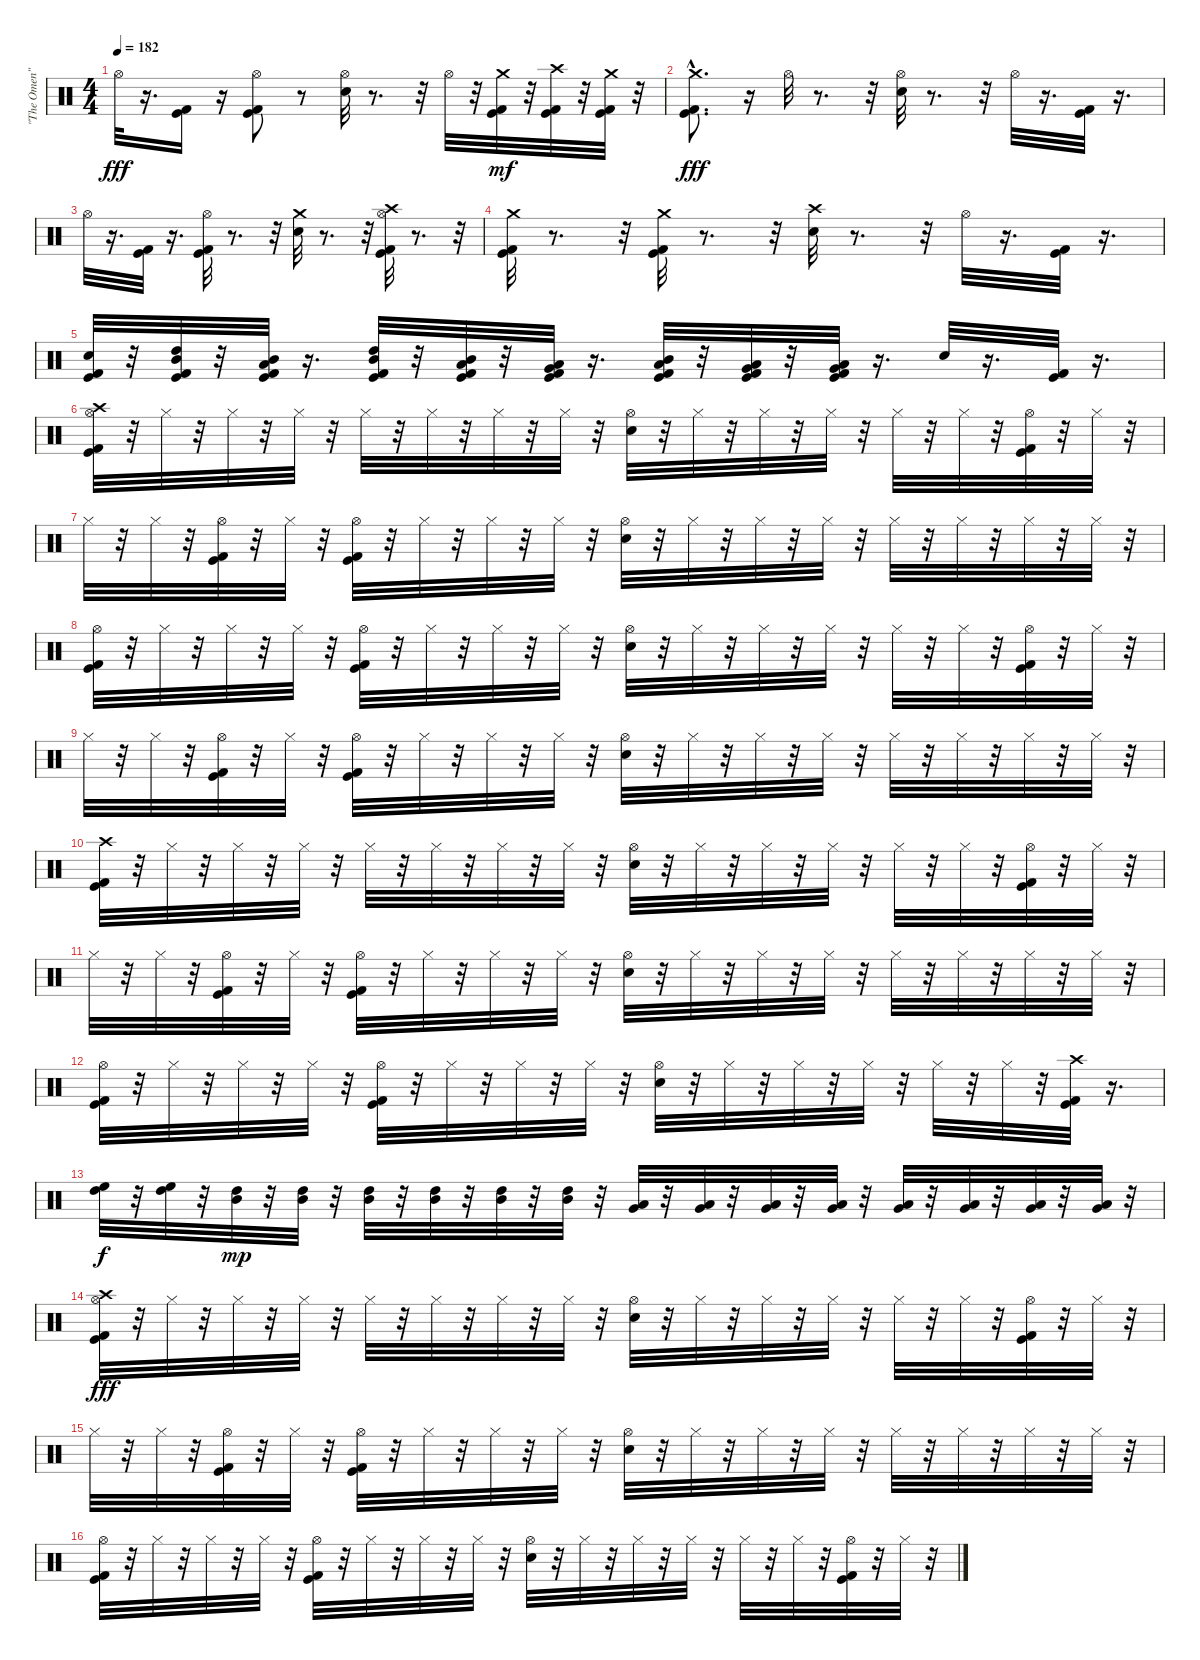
\track ("\"The Omen\"" "\"The Omen\"") {instrument percussion}
\staff {score}
\articulation defaults
\ts (4 4)
\tempo 182
\clef neutral
\ks c "Hi-Hat (open)".32{dy fff}
r.16{d} ("Kick (hit)" "Kick (hit) 2").16 r.16 ("Kick (hit)" "Kick (hit) 2" "Hi-Hat (open)").8 r.8 ("Snare (hit) 2" "Hi-Hat (open)").32 r.8{d} r.32 "Hi-Hat (open)".32 r.32 ("Kick (hit)" "Kick (hit) 2" "Crash medium (hit)").32{dy mf} r.32 ("Kick (hit)" "Kick (hit) 2" "Crash high (hit)").32 r.32 ("Kick (hit)" "Kick (hit) 2" "Crash medium (hit)").32 r.32 |
("Kick (hit)" "Kick (hit) 2"{hac} "Crash medium (hit)").8{d dy fff} r.16 "Hi-Hat (open)".32 r.8{d} r.32 ("Snare (hit) 2" "Hi-Hat (open)").32 r.8{d} r.32 "Hi-Hat (open)".32 r.16{d} ("Kick (hit)" "Kick (hit) 2").32 r.16{d} |
"Hi-Hat (open)".32 r.16{d} ("Kick (hit)" "Kick (hit) 2").32 r.16{d} ("Kick (hit)" "Kick (hit) 2" "Hi-Hat (open)").32 r.8{d} r.32 ("Snare (hit) 2" "Crash medium (hit)").32 r.8{d} r.32 ("Kick (hit)" "Kick (hit) 2" "Hi-Hat (open)" "Crash high (hit)").32 r.8{d} r.32 |
("Kick (hit)" "Kick (hit) 2" "Crash medium (hit)").32 r.8{d} r.32 ("Kick (hit)" "Kick (hit) 2" "Crash medium (hit)").32 r.8{d} r.32 ("Snare (hit) 2" "Crash high (hit)").32 r.8{d} r.32 "Hi-Hat (open)".32 r.16{d} ("Kick (hit)" "Kick (hit) 2").32 r.16{d} |
("Kick (hit)" "Kick (hit) 2" "Snare (hit) 2").32 r.32 ("Kick (hit)" "Kick (hit) 2" "Mid Tom (hit)" "High Tom (hit)").32 r.32 ("Kick (hit)" "Kick (hit) 2" "Low Tom (hit)" "Mid Tom (hit)").32 r.16{d} ("Kick (hit)" "Kick (hit) 2" "Mid Tom (hit)" "High Tom (hit)").32 r.32 ("Kick (hit)" "Kick (hit) 2" "Low Tom (hit)" "Mid Tom (hit)").32 r.32 ("Kick (hit)" "Kick (hit) 2" "Very Low Tom (hit)" "Low Tom (hit)").32 r.16{d} ("Kick (hit)" "Kick (hit) 2" "Low Tom (hit)" "Mid Tom (hit)").32 r.32 ("Kick (hit)" "Kick (hit) 2" "Very Low Tom (hit)" "Low Tom (hit)").32 r.32 ("Kick (hit)" "Kick (hit) 2" "Low Floor Tom (hit)" "Very Low Tom (hit)").32 r.16{d} "Snare (hit) 2".32 r.16{d} ("Kick (hit)" "Kick (hit) 2").32 r.16{d} |
("Kick (hit)" "Kick (hit) 2" "Hi-Hat (open)" "Crash high (hit)").32 r.32 "Hi-Hat (closed)".32 r.32 "Hi-Hat (closed)".32 r.32 "Hi-Hat (closed)".32 r.32 "Hi-Hat (closed)".32 r.32 "Hi-Hat (closed)".32 r.32 "Hi-Hat (closed)".32 r.32 "Hi-Hat (closed)".32 r.32 ("Snare (hit) 2" "Hi-Hat (open)").32 r.32 "Hi-Hat (closed)".32 r.32 "Hi-Hat (closed)".32 r.32 "Hi-Hat (closed)".32 r.32 "Hi-Hat (closed)".32 r.32 "Hi-Hat (closed)".32 r.32 ("Kick (hit)" "Kick (hit) 2" "Hi-Hat (open)").32 r.32 "Hi-Hat (closed)".32 r.32 |
"Hi-Hat (closed)".32 r.32 "Hi-Hat (closed)".32 r.32 ("Kick (hit)" "Kick (hit) 2" "Hi-Hat (open)").32 r.32 "Hi-Hat (closed)".32 r.32 ("Kick (hit)" "Kick (hit) 2" "Hi-Hat (open)").32 r.32 "Hi-Hat (closed)".32 r.32 "Hi-Hat (closed)".32 r.32 "Hi-Hat (closed)".32 r.32 ("Snare (hit) 2" "Hi-Hat (open)").32 r.32 "Hi-Hat (closed)".32 r.32 "Hi-Hat (closed)".32 r.32 "Hi-Hat (closed)".32 r.32 "Hi-Hat (closed)".32 r.32 "Hi-Hat (closed)".32 r.32 "Hi-Hat (closed)".32 r.32 "Hi-Hat (closed)".32 r.32 |
("Kick (hit)" "Kick (hit) 2" "Hi-Hat (open)").32 r.32 "Hi-Hat (closed)".32 r.32 "Hi-Hat (closed)".32 r.32 "Hi-Hat (closed)".32 r.32 ("Kick (hit)" "Kick (hit) 2" "Hi-Hat (open)").32 r.32 "Hi-Hat (closed)".32 r.32 "Hi-Hat (closed)".32 r.32 "Hi-Hat (closed)".32 r.32 ("Snare (hit) 2" "Hi-Hat (open)").32 r.32 "Hi-Hat (closed)".32 r.32 "Hi-Hat (closed)".32 r.32 "Hi-Hat (closed)".32 r.32 "Hi-Hat (closed)".32 r.32 "Hi-Hat (closed)".32 r.32 ("Kick (hit)" "Kick (hit) 2" "Hi-Hat (open)").32 r.32 "Hi-Hat (closed)".32 r.32 |
"Hi-Hat (closed)".32 r.32 "Hi-Hat (closed)".32 r.32 ("Kick (hit)" "Kick (hit) 2" "Hi-Hat (open)").32 r.32 "Hi-Hat (closed)".32 r.32 ("Kick (hit)" "Kick (hit) 2" "Hi-Hat (open)").32 r.32 "Hi-Hat (closed)".32 r.32 "Hi-Hat (closed)".32 r.32 "Hi-Hat (closed)".32 r.32 ("Snare (hit) 2" "Hi-Hat (open)").32 r.32 "Hi-Hat (closed)".32 r.32 "Hi-Hat (closed)".32 r.32 "Hi-Hat (closed)".32 r.32 "Hi-Hat (closed)".32 r.32 "Hi-Hat (closed)".32 r.32 "Hi-Hat (closed)".32 r.32 "Hi-Hat (closed)".32 r.32 |
("Kick (hit)" "Kick (hit) 2" "Crash high (hit)").32 r.32 "Hi-Hat (closed)".32 r.32 "Hi-Hat (closed)".32 r.32 "Hi-Hat (closed)".32 r.32 "Hi-Hat (closed)".32 r.32 "Hi-Hat (closed)".32 r.32 "Hi-Hat (closed)".32 r.32 "Hi-Hat (closed)".32 r.32 ("Snare (hit) 2" "Hi-Hat (open)").32 r.32 "Hi-Hat (closed)".32 r.32 "Hi-Hat (closed)".32 r.32 "Hi-Hat (closed)".32 r.32 "Hi-Hat (closed)".32 r.32 "Hi-Hat (closed)".32 r.32 ("Kick (hit)" "Kick (hit) 2" "Hi-Hat (open)").32 r.32 "Hi-Hat (closed)".32 r.32 |
"Hi-Hat (closed)".32 r.32 "Hi-Hat (closed)".32 r.32 ("Kick (hit)" "Kick (hit) 2" "Hi-Hat (open)").32 r.32 "Hi-Hat (closed)".32 r.32 ("Kick (hit)" "Kick (hit) 2" "Hi-Hat (open)").32 r.32 "Hi-Hat (closed)".32 r.32 "Hi-Hat (closed)".32 r.32 "Hi-Hat (closed)".32 r.32 ("Snare (hit) 2" "Hi-Hat (open)").32 r.32 "Hi-Hat (closed)".32 r.32 "Hi-Hat (closed)".32 r.32 "Hi-Hat (closed)".32 r.32 "Hi-Hat (closed)".32 r.32 "Hi-Hat (closed)".32 r.32 "Hi-Hat (closed)".32 r.32 "Hi-Hat (closed)".32 r.32 |
("Kick (hit)" "Kick (hit) 2" "Hi-Hat (open)").32 r.32 "Hi-Hat (closed)".32 r.32 "Hi-Hat (closed)".32 r.32 "Hi-Hat (closed)".32 r.32 ("Kick (hit)" "Kick (hit) 2" "Hi-Hat (open)").32 r.32 "Hi-Hat (closed)".32 r.32 "Hi-Hat (closed)".32 r.32 "Hi-Hat (closed)".32 r.32 ("Snare (hit) 2" "Hi-Hat (open)").32 r.32 "Hi-Hat (closed)".32 r.32 "Hi-Hat (closed)".32 r.32 "Hi-Hat (closed)".32 r.32 "Hi-Hat (closed)".32 r.32 "Hi-Hat (closed)".32 r.32 ("Kick (hit)" "Kick (hit) 2" "Crash high (hit)").32 r.16{d} |
("High Tom (hit)" "High Floor Tom (hit)").32{dy f} r.32 ("High Tom (hit)" "High Floor Tom (hit)").32 r.32 ("Mid Tom (hit)" "High Tom (hit)").32{dy mp} r.32 ("Mid Tom (hit)" "High Tom (hit)").32 r.32 ("Mid Tom (hit)" "High Tom (hit)").32 r.32 ("Mid Tom (hit)" "High Tom (hit)").32 r.32 ("Mid Tom (hit)" "High Tom (hit)").32 r.32 ("Mid Tom (hit)" "High Tom (hit)").32 r.32 ("Very Low Tom (hit)" "Low Tom (hit)").32 r.32 ("Very Low Tom (hit)" "Low Tom (hit)").32 r.32 ("Very Low Tom (hit)" "Low Tom (hit)").32 r.32 ("Very Low Tom (hit)" "Low Tom (hit)").32 r.32 ("Low Floor Tom (hit)" "Very Low Tom (hit)").32 r.32 ("Low Floor Tom (hit)" "Very Low Tom (hit)").32 r.32 ("Low Floor Tom (hit)" "Very Low Tom (hit)").32 r.32 ("Low Floor Tom (hit)" "Very Low Tom (hit)").32 r.32 |
("Kick (hit)" "Kick (hit) 2" "Hi-Hat (open)" "Crash high (hit)").32{dy fff} r.32 "Hi-Hat (closed)".32 r.32 "Hi-Hat (closed)".32 r.32 "Hi-Hat (closed)".32 r.32 "Hi-Hat (closed)".32 r.32 "Hi-Hat (closed)".32 r.32 "Hi-Hat (closed)".32 r.32 "Hi-Hat (closed)".32 r.32 ("Snare (hit) 2" "Hi-Hat (open)").32 r.32 "Hi-Hat (closed)".32 r.32 "Hi-Hat (closed)".32 r.32 "Hi-Hat (closed)".32 r.32 "Hi-Hat (closed)".32 r.32 "Hi-Hat (closed)".32 r.32 ("Kick (hit)" "Kick (hit) 2" "Hi-Hat (open)").32 r.32 "Hi-Hat (closed)".32 r.32 |
"Hi-Hat (closed)".32 r.32 "Hi-Hat (closed)".32 r.32 ("Kick (hit)" "Kick (hit) 2" "Hi-Hat (open)").32 r.32 "Hi-Hat (closed)".32 r.32 ("Kick (hit)" "Kick (hit) 2" "Hi-Hat (open)").32 r.32 "Hi-Hat (closed)".32 r.32 "Hi-Hat (closed)".32 r.32 "Hi-Hat (closed)".32 r.32 ("Snare (hit) 2" "Hi-Hat (open)").32 r.32 "Hi-Hat (closed)".32 r.32 "Hi-Hat (closed)".32 r.32 "Hi-Hat (closed)".32 r.32 "Hi-Hat (closed)".32 r.32 "Hi-Hat (closed)".32 r.32 "Hi-Hat (closed)".32 r.32 "Hi-Hat (closed)".32 r.32 |
("Kick (hit)" "Kick (hit) 2" "Hi-Hat (open)").32 r.32 "Hi-Hat (closed)".32 r.32 "Hi-Hat (closed)".32 r.32 "Hi-Hat (closed)".32 r.32 ("Kick (hit)" "Kick (hit) 2" "Hi-Hat (open)").32 r.32 "Hi-Hat (closed)".32 r.32 "Hi-Hat (closed)".32 r.32 "Hi-Hat (closed)".32 r.32 ("Snare (hit) 2" "Hi-Hat (open)").32 r.32 "Hi-Hat (closed)".32 r.32 "Hi-Hat (closed)".32 r.32 "Hi-Hat (closed)".32 r.32 "Hi-Hat (closed)".32 r.32 "Hi-Hat (closed)".32 r.32 ("Kick (hit)" "Kick (hit) 2" "Hi-Hat (open)").32 r.32 "Hi-Hat (closed)".32 r.32
